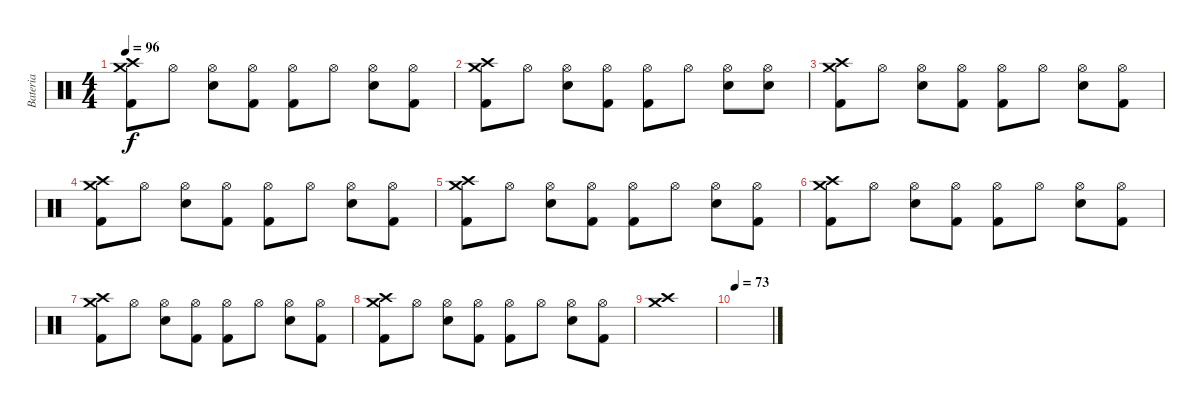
\track ("Bateria" "Bateria") {instrument percussion}
\staff {score}
\articulation defaults
\ts (4 4)
\tempo 96
\clef neutral
\ks c
("Crash medium (hit)" "Crash high (hit)" "Kick (hit) 2").8{dy f} "Hi-Hat (open)".8 ("Hi-Hat (open)" "Snare (hit) 2").8 ("Hi-Hat (open)" "Kick (hit) 2").8 ("Hi-Hat (open)" "Kick (hit) 2").8 "Hi-Hat (open)".8 ("Hi-Hat (open)" "Snare (hit) 2").8 ("Hi-Hat (open)" "Kick (hit) 2").8 |
("Crash medium (hit)" "Crash high (hit)" "Kick (hit) 2").8 "Hi-Hat (open)".8 ("Hi-Hat (open)" "Snare (hit) 2").8 ("Hi-Hat (open)" "Kick (hit) 2").8 ("Hi-Hat (open)" "Kick (hit) 2").8 "Hi-Hat (open)".8 ("Hi-Hat (open)" "Snare (hit) 2").8 ("Hi-Hat (open)" "Snare (hit) 2").8 |
("Crash medium (hit)" "Crash high (hit)" "Kick (hit) 2").8 "Hi-Hat (open)".8 ("Hi-Hat (open)" "Snare (hit) 2").8 ("Hi-Hat (open)" "Kick (hit) 2").8 ("Hi-Hat (open)" "Kick (hit) 2").8 "Hi-Hat (open)".8 ("Hi-Hat (open)" "Snare (hit) 2").8 ("Hi-Hat (open)" "Kick (hit) 2").8 |
("Crash medium (hit)" "Crash high (hit)" "Kick (hit) 2").8 "Hi-Hat (open)".8 ("Hi-Hat (open)" "Snare (hit) 2").8 ("Hi-Hat (open)" "Kick (hit) 2").8 ("Hi-Hat (open)" "Kick (hit) 2").8 "Hi-Hat (open)".8 ("Hi-Hat (open)" "Snare (hit) 2").8 ("Hi-Hat (open)" "Kick (hit) 2").8 |
("Crash medium (hit)" "Crash high (hit)" "Kick (hit) 2").8 "Hi-Hat (open)".8 ("Hi-Hat (open)" "Snare (hit) 2").8 ("Hi-Hat (open)" "Kick (hit) 2").8 ("Hi-Hat (open)" "Kick (hit) 2").8 "Hi-Hat (open)".8 ("Hi-Hat (open)" "Snare (hit) 2").8 ("Hi-Hat (open)" "Kick (hit) 2").8 |
("Crash medium (hit)" "Crash high (hit)" "Kick (hit) 2").8 "Hi-Hat (open)".8 ("Hi-Hat (open)" "Snare (hit) 2").8 ("Hi-Hat (open)" "Kick (hit) 2").8 ("Hi-Hat (open)" "Kick (hit) 2").8 "Hi-Hat (open)".8 ("Hi-Hat (open)" "Snare (hit) 2").8 ("Hi-Hat (open)" "Kick (hit) 2").8 |
("Crash medium (hit)" "Crash high (hit)" "Kick (hit) 2").8 "Hi-Hat (open)".8 ("Hi-Hat (open)" "Snare (hit) 2").8 ("Hi-Hat (open)" "Kick (hit) 2").8 ("Hi-Hat (open)" "Kick (hit) 2").8 "Hi-Hat (open)".8 ("Hi-Hat (open)" "Snare (hit) 2").8 ("Hi-Hat (open)" "Kick (hit) 2").8 |
("Crash medium (hit)" "Crash high (hit)" "Kick (hit) 2").8 "Hi-Hat (open)".8 ("Hi-Hat (open)" "Snare (hit) 2").8 ("Hi-Hat (open)" "Kick (hit) 2").8 ("Hi-Hat (open)" "Kick (hit) 2").8 "Hi-Hat (open)".8 ("Hi-Hat (open)" "Snare (hit) 2").8 ("Hi-Hat (open)" "Kick (hit) 2").8 |
("Crash high (hit)" "Crash medium (hit)").1 |
\tempo 73
